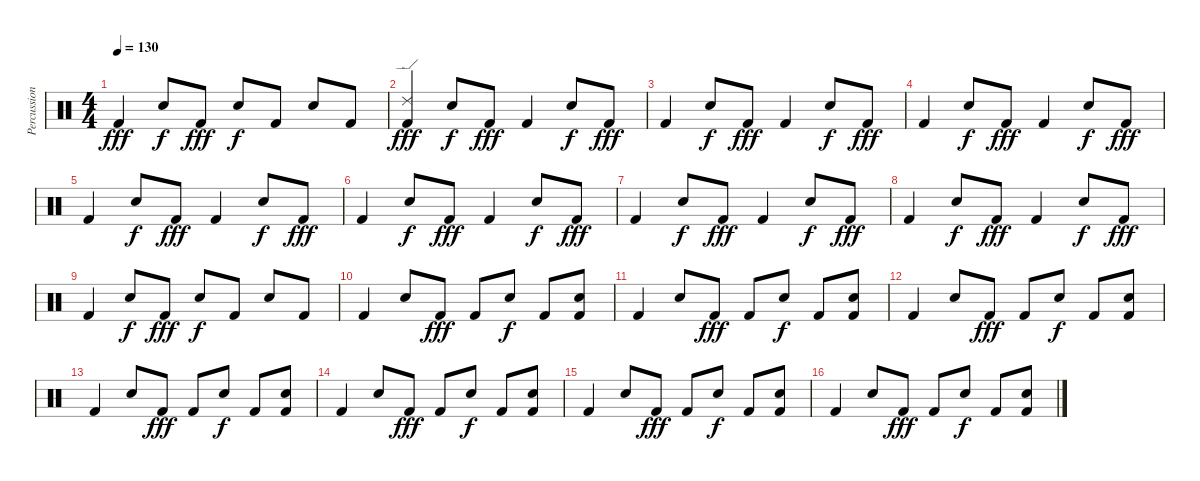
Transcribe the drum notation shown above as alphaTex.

\track ("Percussion" "Percussion") {instrument percussion}
\staff {score}
\articulation defaults
\ts (4 4)
\tempo 130
\clef neutral
\ks c "Kick (hit) 2".4{dy fff} "Electric Snare (hit)".8{dy f} "Kick (hit) 2".8{dy fff} "Electric Snare (hit)".8{dy f} "Kick (hit) 2".8 "Electric Snare (hit)".8 "Kick (hit) 2".8
|
("Ride (edge) 2" "Kick (hit) 2").4{dy fff} "Electric Snare (hit)".8{dy f} "Kick (hit) 2".8{dy fff} "Kick (hit) 2".4 "Electric Snare (hit)".8{dy f} "Kick (hit) 2".8{dy fff} |
"Kick (hit) 2".4 "Electric Snare (hit)".8{dy f} "Kick (hit) 2".8{dy fff} "Kick (hit) 2".4 "Electric Snare (hit)".8{dy f} "Kick (hit) 2".8{dy fff} |
"Kick (hit) 2".4 "Electric Snare (hit)".8{dy f} "Kick (hit) 2".8{dy fff} "Kick (hit) 2".4 "Electric Snare (hit)".8{dy f} "Kick (hit) 2".8{dy fff} |
"Kick (hit) 2".4 "Electric Snare (hit)".8{dy f} "Kick (hit) 2".8{dy fff} "Kick (hit) 2".4 "Electric Snare (hit)".8{dy f} "Kick (hit) 2".8{dy fff} |
"Kick (hit) 2".4 "Electric Snare (hit)".8{dy f} "Kick (hit) 2".8{dy fff} "Kick (hit) 2".4 "Electric Snare (hit)".8{dy f} "Kick (hit) 2".8{dy fff} |
"Kick (hit) 2".4 "Electric Snare (hit)".8{dy f} "Kick (hit) 2".8{dy fff} "Kick (hit) 2".4 "Electric Snare (hit)".8{dy f} "Kick (hit) 2".8{dy fff} |
"Kick (hit) 2".4 "Electric Snare (hit)".8{dy f} "Kick (hit) 2".8{dy fff} "Kick (hit) 2".4 "Electric Snare (hit)".8{dy f} "Kick (hit) 2".8{dy fff} |
"Kick (hit) 2".4 "Electric Snare (hit)".8{dy f} "Kick (hit) 2".8{dy fff} "Electric Snare (hit)".8{dy f} "Kick (hit) 2".8 "Electric Snare (hit)".8 "Kick (hit) 2".8 |
"Kick (hit) 2".4 "Electric Snare (hit)".8 "Kick (hit) 2".8{dy fff} "Kick (hit) 2".8 "Electric Snare (hit)".8{dy f} "Kick (hit) 2".8 ("Electric Snare (hit)" "Kick (hit) 2").8 |
"Kick (hit) 2".4 "Electric Snare (hit)".8 "Kick (hit) 2".8{dy fff} "Kick (hit) 2".8 "Electric Snare (hit)".8{dy f} "Kick (hit) 2".8 ("Electric Snare (hit)" "Kick (hit) 2").8 |
"Kick (hit) 2".4 "Electric Snare (hit)".8 "Kick (hit) 2".8{dy fff} "Kick (hit) 2".8 "Electric Snare (hit)".8{dy f} "Kick (hit) 2".8 ("Electric Snare (hit)" "Kick (hit) 2").8 |
"Kick (hit) 2".4 "Electric Snare (hit)".8 "Kick (hit) 2".8{dy fff} "Kick (hit) 2".8 "Electric Snare (hit)".8{dy f} "Kick (hit) 2".8 ("Electric Snare (hit)" "Kick (hit) 2").8 |
"Kick (hit) 2".4 "Electric Snare (hit)".8 "Kick (hit) 2".8{dy fff} "Kick (hit) 2".8 "Electric Snare (hit)".8{dy f} "Kick (hit) 2".8 ("Electric Snare (hit)" "Kick (hit) 2").8 |
"Kick (hit) 2".4 "Electric Snare (hit)".8 "Kick (hit) 2".8{dy fff} "Kick (hit) 2".8 "Electric Snare (hit)".8{dy f} "Kick (hit) 2".8 ("Electric Snare (hit)" "Kick (hit) 2").8 |
"Kick (hit) 2".4 "Electric Snare (hit)".8 "Kick (hit) 2".8{dy fff} "Kick (hit) 2".8 "Electric Snare (hit)".8{dy f} "Kick (hit) 2".8 ("Electric Snare (hit)" "Kick (hit) 2").8
